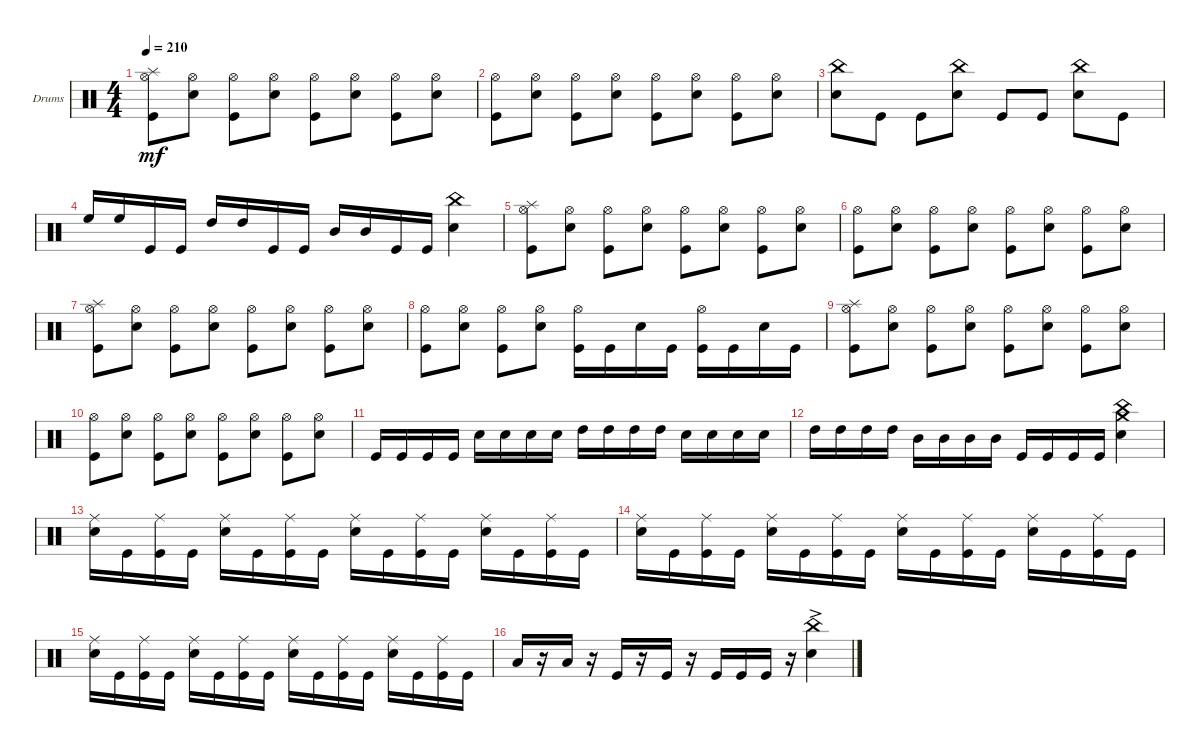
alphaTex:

\bracketExtendMode groupsimilarinstruments
\firstSystemTrackNameOrientation horizontal
\otherSystemsTrackNameOrientation horizontal
\track ("Drumkit" "Drums") {instrument percussion}
\staff {score}
\articulation defaults
\ts (4 4)
\tempo 210
\clef neutral
\ks c
("Kick (hit)" "Hi-Hat (open)" "Splash (hit)").8{dy mf} ("Snare (hit) 2" "Hi-Hat (open)").8 ("Kick (hit)" "Hi-Hat (open)").8 ("Snare (hit) 2" "Hi-Hat (open)").8 ("Kick (hit)" "Hi-Hat (open)").8 ("Snare (hit) 2" "Hi-Hat (open)").8 ("Kick (hit)" "Hi-Hat (open)").8 ("Snare (hit) 2" "Hi-Hat (open)").8 |
("Kick (hit)" "Hi-Hat (open)").8 ("Snare (hit) 2" "Hi-Hat (open)").8 ("Kick (hit)" "Hi-Hat (open)").8 ("Snare (hit) 2" "Hi-Hat (open)").8 ("Kick (hit)" "Hi-Hat (open)").8 ("Snare (hit) 2" "Hi-Hat (open)").8 ("Kick (hit)" "Hi-Hat (open)").8 ("Snare (hit) 2" "Hi-Hat (open)").8 |
("Snare (hit) 2" "China (hit)").8 "Kick (hit)".8 "Kick (hit)".8 ("Snare (hit) 2" "China (hit)").8 "Kick (hit)".8 "Kick (hit)".8 ("Snare (hit) 2" "China (hit)").8 "Kick (hit)".8 |
"High Floor Tom (hit)".16 "High Floor Tom (hit)".16 "Kick (hit)".16 "Kick (hit)".16 "High Tom (hit)".16 "High Tom (hit)".16 "Kick (hit)".16 "Kick (hit)".16 "Mid Tom (hit)".16 "Mid Tom (hit)".16 "Kick (hit)".16 "Kick (hit)".16 ("Snare (hit) 2" "China (hit)").4 |
("Kick (hit)" "Hi-Hat (open)" "Splash (hit)").8 ("Snare (hit) 2" "Hi-Hat (open)").8 ("Kick (hit)" "Hi-Hat (open)").8 ("Snare (hit) 2" "Hi-Hat (open)").8 ("Kick (hit)" "Hi-Hat (open)").8 ("Snare (hit) 2" "Hi-Hat (open)").8 ("Kick (hit)" "Hi-Hat (open)").8 ("Snare (hit) 2" "Hi-Hat (open)").8 |
("Kick (hit)" "Hi-Hat (open)").8 ("Snare (hit) 2" "Hi-Hat (open)").8 ("Kick (hit)" "Hi-Hat (open)").8 ("Snare (hit) 2" "Hi-Hat (open)").8 ("Kick (hit)" "Hi-Hat (open)").8 ("Snare (hit) 2" "Hi-Hat (open)").8 ("Kick (hit)" "Hi-Hat (open)").8 ("Snare (hit) 2" "Hi-Hat (open)").8 |
("Kick (hit)" "Hi-Hat (open)" "Splash (hit)").8 ("Snare (hit) 2" "Hi-Hat (open)").8 ("Kick (hit)" "Hi-Hat (open)").8 ("Snare (hit) 2" "Hi-Hat (open)").8 ("Kick (hit)" "Hi-Hat (open)").8 ("Snare (hit) 2" "Hi-Hat (open)").8 ("Kick (hit)" "Hi-Hat (open)").8 ("Snare (hit) 2" "Hi-Hat (open)").8 |
("Kick (hit)" "Hi-Hat (open)").8 ("Snare (hit) 2" "Hi-Hat (open)").8 ("Kick (hit)" "Hi-Hat (open)").8 ("Snare (hit) 2" "Hi-Hat (open)").8 ("Kick (hit)" "Hi-Hat (open)").16 "Kick (hit)".16 "Snare (hit) 2".16 "Kick (hit)".16 ("Kick (hit)" "Hi-Hat (open)").16 "Kick (hit)".16 "Snare (hit) 2".16 "Kick (hit)".16 |
("Kick (hit)" "Hi-Hat (open)" "Splash (hit)").8 ("Snare (hit) 2" "Hi-Hat (open)").8 ("Kick (hit)" "Hi-Hat (open)").8 ("Snare (hit) 2" "Hi-Hat (open)").8 ("Kick (hit)" "Hi-Hat (open)").8 ("Snare (hit) 2" "Hi-Hat (open)").8 ("Kick (hit)" "Hi-Hat (open)").8 ("Snare (hit) 2" "Hi-Hat (open)").8 |
("Kick (hit)" "Hi-Hat (open)").8 ("Snare (hit) 2" "Hi-Hat (open)").8 ("Kick (hit)" "Hi-Hat (open)").8 ("Snare (hit) 2" "Hi-Hat (open)").8 ("Kick (hit)" "Hi-Hat (open)").8 ("Snare (hit) 2" "Hi-Hat (open)").8 ("Kick (hit)" "Hi-Hat (open)").8 ("Snare (hit) 2" "Hi-Hat (open)").8 |
"Kick (hit)".16 "Kick (hit)".16 "Kick (hit)".16 "Kick (hit)".16 "Snare (hit) 2".16 "Snare (hit) 2".16 "Snare (hit) 2".16 "Snare (hit) 2".16 "High Tom (hit)".16 "High Tom (hit)".16 "High Tom (hit)".16 "High Tom (hit)".16 "Snare (hit) 2".16 "Snare (hit) 2".16 "Snare (hit) 2".16 "Snare (hit) 2".16 |
"High Tom (hit)".16 "High Tom (hit)".16 "High Tom (hit)".16 "High Tom (hit)".16 "Mid Tom (hit)".16 "Mid Tom (hit)".16 "Mid Tom (hit)".16 "Mid Tom (hit)".16 "Kick (hit)".16 "Kick (hit)".16 "Kick (hit)".16 "Kick (hit)".16 ("Snare (hit) 2" "China (hit)" "Crash medium (hit)").4 |
("Snare (hit) 2" "Ride (middle)").16 "Kick (hit)".16 ("Kick (hit)" "Ride (middle)").16 "Kick (hit)".16 ("Snare (hit) 2" "Ride (middle)").16 "Kick (hit)".16 ("Kick (hit)" "Ride (middle)").16 "Kick (hit)".16 ("Snare (hit) 2" "Ride (middle)").16 "Kick (hit)".16 ("Kick (hit)" "Ride (middle)").16 "Kick (hit)".16 ("Snare (hit) 2" "Ride (middle)").16 "Kick (hit)".16 ("Kick (hit)" "Ride (middle)").16 "Kick (hit)".16 |
("Snare (hit) 2" "Ride (middle)").16 "Kick (hit)".16 ("Kick (hit)" "Ride (middle)").16 "Kick (hit)".16 ("Snare (hit) 2" "Ride (middle)").16 "Kick (hit)".16 ("Kick (hit)" "Ride (middle)").16 "Kick (hit)".16 ("Snare (hit) 2" "Ride (middle)").16 "Kick (hit)".16 ("Kick (hit)" "Ride (middle)").16 "Kick (hit)".16 ("Snare (hit) 2" "Ride (middle)").16 "Kick (hit)".16 ("Kick (hit)" "Ride (middle)").16 "Kick (hit)".16 |
("Snare (hit) 2" "Ride (middle)").16 "Kick (hit)".16 ("Kick (hit)" "Ride (middle)").16 "Kick (hit)".16 ("Snare (hit) 2" "Ride (middle)").16 "Kick (hit)".16 ("Kick (hit)" "Ride (middle)").16 "Kick (hit)".16 ("Snare (hit) 2" "Ride (middle)").16 "Kick (hit)".16 ("Kick (hit)" "Ride (middle)").16 "Kick (hit)".16 ("Snare (hit) 2" "Ride (middle)").16 "Kick (hit)".16 ("Kick (hit)" "Ride (middle)").16 "Kick (hit)".16 |
"Low Tom (hit)".16 r.16 "Low Tom (hit)".16 r.16 "Kick (hit)".16 r.16 "Kick (hit)".16 r.16 "Kick (hit)".16 "Kick (hit)".16 "Kick (hit)".16 r.16 ("Snare (hit) 2" "China (hit)"{ac}).4
